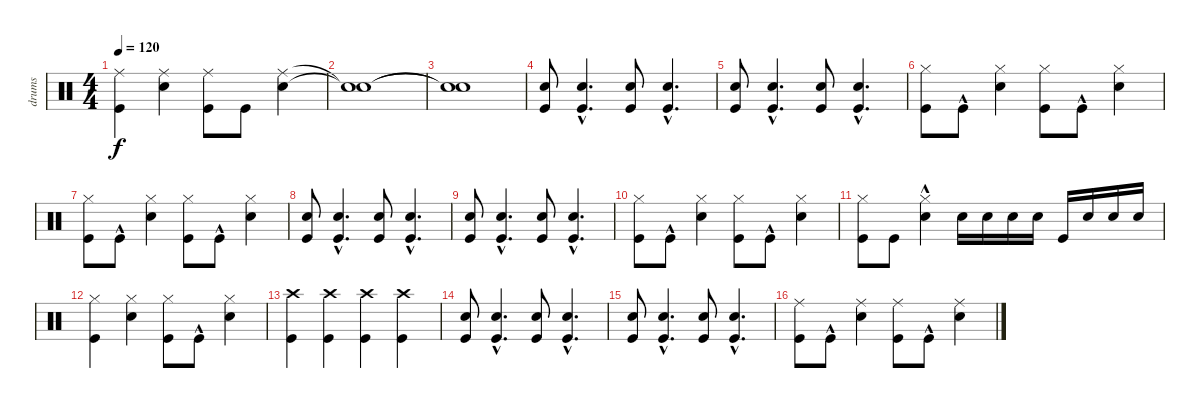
\track ("drums" "drums") {instrument percussion}
\staff {score}
\articulation defaults
\ts (4 4)
\tempo 120
\clef neutral
\ks c
("Kick (hit)" "Ride (middle)").4{dy f} ("Snare (hit) 2" "Ride (middle)").4 ("Kick (hit)" "Ride (middle)").8 "Kick (hit)".8 ("Snare (hit) 2" "Ride (middle)").4 |
("Snare (hit)"{t} "Snare (hit)"{t}).1 |
("Snare (hit)"{t} "Snare (hit)"{t}).1 |
("Kick (hit)" "Snare (hit) 2").8 ("Kick (hit)"{hac} "Snare (hit) 2"{hac}).4{d} ("Kick (hit)" "Snare (hit) 2").8 ("Kick (hit)"{hac} "Snare (hit) 2"{hac}).4{d} |
("Kick (hit)" "Snare (hit) 2").8 ("Kick (hit)"{hac} "Snare (hit) 2"{hac}).4{d} ("Kick (hit)" "Snare (hit) 2").8 ("Kick (hit)"{hac} "Snare (hit) 2").4{d} |
("Kick (hit)" "Hi-Hat (closed)").8 "Kick (hit)"{hac}.8 ("Snare (hit) 2" "Hi-Hat (closed)").4 ("Kick (hit)" "Hi-Hat (closed)").8 "Kick (hit)"{hac}.8 ("Snare (hit) 2" "Hi-Hat (closed)").4 |
("Kick (hit)" "Hi-Hat (closed)").8 "Kick (hit)"{hac}.8 ("Snare (hit) 2" "Hi-Hat (closed)").4 ("Kick (hit)" "Hi-Hat (closed)").8 "Kick (hit)"{hac}.8 ("Snare (hit) 2" "Hi-Hat (closed)").4 |
("Kick (hit)" "Snare (hit) 2").8 ("Kick (hit)"{hac} "Snare (hit) 2"{hac}).4{d} ("Kick (hit)" "Snare (hit) 2").8 ("Kick (hit)"{hac} "Snare (hit) 2"{hac}).4{d} |
("Kick (hit)" "Snare (hit) 2").8 ("Kick (hit)"{hac} "Snare (hit) 2"{hac}).4{d} ("Kick (hit)" "Snare (hit) 2").8 ("Kick (hit)"{hac} "Snare (hit) 2").4{d} |
("Kick (hit)" "Hi-Hat (closed)").8 "Kick (hit)"{hac}.8 ("Snare (hit) 2" "Hi-Hat (closed)").4 ("Kick (hit)" "Hi-Hat (closed)").8 "Kick (hit)"{hac}.8 ("Snare (hit) 2" "Hi-Hat (closed)").4 |
("Kick (hit)" "Hi-Hat (closed)").8 "Kick (hit)".8 ("Snare (hit) 2" "Hi-Hat (closed)"{hac}).4 "Snare (hit) 2".16 "Snare (hit) 2".16 "Snare (hit) 2".16 "Snare (hit) 2".16 "Kick (hit)".16 "Snare (hit) 2".16 "Snare (hit) 2".16 "Snare (hit) 2".16 |
("Kick (hit)" "Hi-Hat (closed)").4 ("Snare (hit) 2" "Hi-Hat (closed)").4 ("Kick (hit)" "Hi-Hat (closed)").8 "Kick (hit)"{hac}.8 ("Snare (hit) 2" "Hi-Hat (closed)").4 |
("Kick (hit)" "Crash high (hit)").4 ("Kick (hit)" "Crash high (hit)").4 ("Kick (hit)" "Crash high (hit)").4 ("Kick (hit)" "Crash high (hit)").4 |
("Kick (hit)" "Snare (hit) 2").8 ("Kick (hit)"{hac} "Snare (hit) 2"{hac}).4{d} ("Kick (hit)" "Snare (hit) 2").8 ("Kick (hit)"{hac} "Snare (hit) 2"{hac}).4{d} |
("Kick (hit)" "Snare (hit) 2").8 ("Kick (hit)"{hac} "Snare (hit) 2"{hac}).4{d} ("Kick (hit)" "Snare (hit) 2").8 ("Kick (hit)"{hac} "Snare (hit) 2").4{d} |
("Kick (hit)" "Ride (middle)").8 "Kick (hit)"{hac}.8 ("Snare (hit) 2" "Ride (middle)").4 ("Kick (hit)" "Ride (middle)").8 "Kick (hit)"{hac}.8 ("Snare (hit) 2" "Ride (middle)").4
